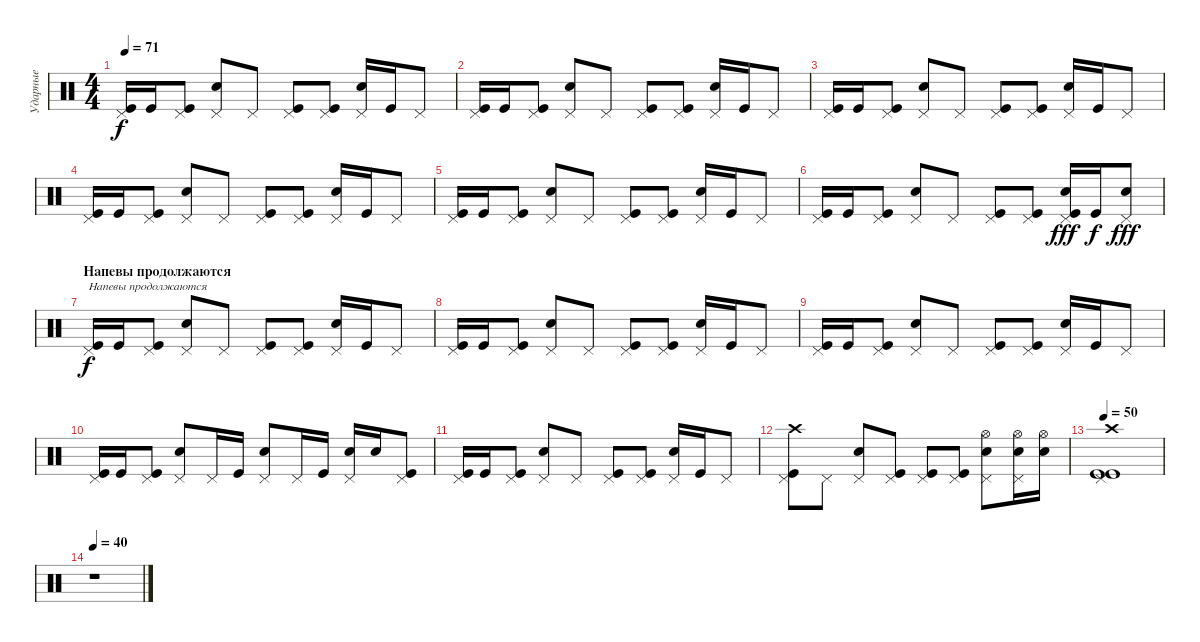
\track ("Ударные" "Ударные") {instrument percussion}
\staff {score}
\articulation defaults
\ts (4 4)
\tempo 71
\clef neutral
\ks c
("Kick (hit)" "Pedal Hi-Hat (hit)").16{dy f} "Kick (hit)".16 ("Kick (hit)" "Pedal Hi-Hat (hit)").8 ("Snare (hit) 2" "Pedal Hi-Hat (hit)").8 "Pedal Hi-Hat (hit)".8 ("Kick (hit)" "Pedal Hi-Hat (hit)").8 ("Kick (hit)" "Pedal Hi-Hat (hit)").8 ("Snare (hit) 2" "Pedal Hi-Hat (hit)").16 "Kick (hit)".16 "Pedal Hi-Hat (hit)".8 |
("Kick (hit)" "Pedal Hi-Hat (hit)").16 "Kick (hit)".16 ("Kick (hit)" "Pedal Hi-Hat (hit)").8 ("Snare (hit) 2" "Pedal Hi-Hat (hit)").8 "Pedal Hi-Hat (hit)".8 ("Kick (hit)" "Pedal Hi-Hat (hit)").8 ("Kick (hit)" "Pedal Hi-Hat (hit)").8 ("Snare (hit) 2" "Pedal Hi-Hat (hit)").16 "Kick (hit)".16 "Pedal Hi-Hat (hit)".8 |
("Kick (hit)" "Pedal Hi-Hat (hit)").16 "Kick (hit)".16 ("Kick (hit)" "Pedal Hi-Hat (hit)").8 ("Snare (hit) 2" "Pedal Hi-Hat (hit)").8 "Pedal Hi-Hat (hit)".8 ("Kick (hit)" "Pedal Hi-Hat (hit)").8 ("Kick (hit)" "Pedal Hi-Hat (hit)").8 ("Snare (hit) 2" "Pedal Hi-Hat (hit)").16 "Kick (hit)".16 "Pedal Hi-Hat (hit)".8 |
("Kick (hit)" "Pedal Hi-Hat (hit)").16 "Kick (hit)".16 ("Kick (hit)" "Pedal Hi-Hat (hit)").8 ("Snare (hit) 2" "Pedal Hi-Hat (hit)").8 "Pedal Hi-Hat (hit)".8 ("Kick (hit)" "Pedal Hi-Hat (hit)").8 ("Kick (hit)" "Pedal Hi-Hat (hit)").8 ("Snare (hit) 2" "Pedal Hi-Hat (hit)").16 "Kick (hit)".16 "Pedal Hi-Hat (hit)".8 |
("Kick (hit)" "Pedal Hi-Hat (hit)").16 "Kick (hit)".16 ("Kick (hit)" "Pedal Hi-Hat (hit)").8 ("Snare (hit) 2" "Pedal Hi-Hat (hit)").8 "Pedal Hi-Hat (hit)".8 ("Kick (hit)" "Pedal Hi-Hat (hit)").8 ("Kick (hit)" "Pedal Hi-Hat (hit)").8 ("Snare (hit) 2" "Pedal Hi-Hat (hit)").16 "Kick (hit)".16 "Pedal Hi-Hat (hit)".8 |
("Kick (hit)" "Pedal Hi-Hat (hit)").16 "Kick (hit)".16 ("Kick (hit)" "Pedal Hi-Hat (hit)").8 ("Snare (hit) 2" "Pedal Hi-Hat (hit)").8 "Pedal Hi-Hat (hit)".8 ("Kick (hit)" "Pedal Hi-Hat (hit)").8 ("Kick (hit)" "Pedal Hi-Hat (hit)").8 ("Kick (hit)" "Snare (hit) 2" "Pedal Hi-Hat (hit)").16{dy fff} "Kick (hit)".16{dy f} ("Snare (hit) 2" "Pedal Hi-Hat (hit)").8{dy fff} |
\section ("" "Напевы продолжаются")
("Kick (hit)" "Pedal Hi-Hat (hit)").16{txt "Напевы продолжаются" dy f} "Kick (hit)".16 ("Kick (hit)" "Pedal Hi-Hat (hit)").8 ("Snare (hit) 2" "Pedal Hi-Hat (hit)").8 "Pedal Hi-Hat (hit)".8 ("Kick (hit)" "Pedal Hi-Hat (hit)").8 ("Kick (hit)" "Pedal Hi-Hat (hit)").8 ("Snare (hit) 2" "Pedal Hi-Hat (hit)").16 "Kick (hit)".16 "Pedal Hi-Hat (hit)".8 |
("Kick (hit)" "Pedal Hi-Hat (hit)").16 "Kick (hit)".16 ("Kick (hit)" "Pedal Hi-Hat (hit)").8 ("Snare (hit) 2" "Pedal Hi-Hat (hit)").8 "Pedal Hi-Hat (hit)".8 ("Kick (hit)" "Pedal Hi-Hat (hit)").8 ("Kick (hit)" "Pedal Hi-Hat (hit)").8 ("Snare (hit) 2" "Pedal Hi-Hat (hit)").16 "Kick (hit)".16 "Pedal Hi-Hat (hit)".8 |
("Kick (hit)" "Pedal Hi-Hat (hit)").16 "Kick (hit)".16 ("Kick (hit)" "Pedal Hi-Hat (hit)").8 ("Snare (hit) 2" "Pedal Hi-Hat (hit)").8 "Pedal Hi-Hat (hit)".8 ("Kick (hit)" "Pedal Hi-Hat (hit)").8 ("Kick (hit)" "Pedal Hi-Hat (hit)").8 ("Snare (hit) 2" "Pedal Hi-Hat (hit)").16 "Kick (hit)".16 "Pedal Hi-Hat (hit)".8 |
("Kick (hit)" "Pedal Hi-Hat (hit)").16 "Kick (hit)".16 ("Kick (hit)" "Pedal Hi-Hat (hit)").8 ("Snare (hit) 2" "Pedal Hi-Hat (hit)").8 "Pedal Hi-Hat (hit)".16 "Kick (hit)".16 ("Snare (hit) 2" "Pedal Hi-Hat (hit)").8 "Pedal Hi-Hat (hit)".16 "Kick (hit)".16 ("Snare (hit) 2" "Pedal Hi-Hat (hit)").16 "Snare (hit) 2".16 ("Kick (hit)" "Pedal Hi-Hat (hit)").8 |
("Kick (hit)" "Pedal Hi-Hat (hit)").16 "Kick (hit)".16 ("Kick (hit)" "Pedal Hi-Hat (hit)").8 ("Snare (hit) 2" "Pedal Hi-Hat (hit)").8 "Pedal Hi-Hat (hit)".8 ("Kick (hit)" "Pedal Hi-Hat (hit)").8 ("Kick (hit)" "Pedal Hi-Hat (hit)").8 ("Snare (hit) 2" "Pedal Hi-Hat (hit)").16 "Kick (hit)".16 "Pedal Hi-Hat (hit)".8 |
("Crash high (hit)" "Kick (hit)" "Pedal Hi-Hat (hit)").8 "Pedal Hi-Hat (hit)".8 ("Snare (hit) 2" "Pedal Hi-Hat (hit)").8 ("Kick (hit)" "Pedal Hi-Hat (hit)").8 ("Kick (hit)" "Pedal Hi-Hat (hit)").8 ("Kick (hit)" "Pedal Hi-Hat (hit)").8 ("Hi-Hat (open)" "Snare (hit) 2" "Pedal Hi-Hat (hit)").8 ("Hi-Hat (open)" "Snare (hit) 2" "Pedal Hi-Hat (hit)").16 ("Hi-Hat (open)" "Snare (hit) 2").16 |
\tempo 50
("Crash high (hit)" "Kick (hit)" "Kick (hit)" "Pedal Hi-Hat (hit)").1 |
\tempo 40
r.1
